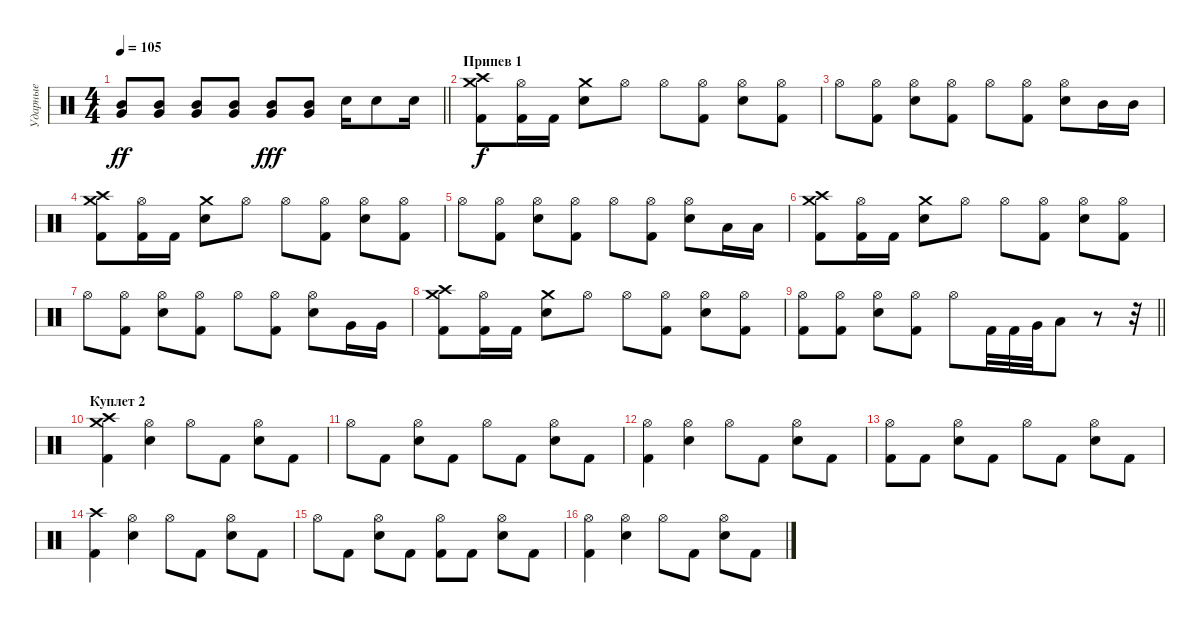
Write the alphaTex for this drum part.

\track ("Ударные" "Ударные") {instrument percussion}
\staff
\articulation defaults
\ts (4 4)
\tempo 105
\clef neutral
\barLineRight lightlight
\ks c
("Mid Tom (hit)" "Very Low Tom (hit)").8{dy ff} ("Mid Tom (hit)" "Very Low Tom (hit)").8 ("Mid Tom (hit)" "Very Low Tom (hit)").8 ("Mid Tom (hit)" "Very Low Tom (hit)").8 ("Mid Tom (hit)" "Very Low Tom (hit)").8{dy fff} ("Mid Tom (hit)" "Very Low Tom (hit)").8 "Electric Snare (hit)".16 "Electric Snare (hit)".8 "Electric Snare (hit)".16 |
\section ("" "Припев 1")
("Crash medium (hit)" "Crash high (hit)" "Kick (hit) 2").8{dy f} ("Hi-Hat (open)" "Kick (hit) 2").16 "Kick (hit) 2".16 ("Crash medium (hit)" "Electric Snare (hit)").8 "Hi-Hat (open)".8 "Hi-Hat (open)".8 ("Hi-Hat (open)" "Kick (hit) 2").8 ("Hi-Hat (open)" "Electric Snare (hit)").8 ("Hi-Hat (open)" "Kick (hit) 2").8 |
"Hi-Hat (open)".8 ("Hi-Hat (open)" "Kick (hit) 2").8 ("Hi-Hat (open)" "Electric Snare (hit)").8 ("Hi-Hat (open)" "Kick (hit) 2").8 "Hi-Hat (open)".8 ("Hi-Hat (open)" "Kick (hit) 2").8 ("Hi-Hat (open)" "Electric Snare (hit)").8 "Mid Tom (hit)".16 "Mid Tom (hit)".16 |
("Crash medium (hit)" "Crash high (hit)" "Kick (hit) 2").8 ("Hi-Hat (open)" "Kick (hit) 2").16 "Kick (hit) 2".16 ("Crash medium (hit)" "Electric Snare (hit)").8 "Hi-Hat (open)".8 "Hi-Hat (open)".8 ("Hi-Hat (open)" "Kick (hit) 2").8 ("Hi-Hat (open)" "Electric Snare (hit)").8 ("Hi-Hat (open)" "Kick (hit) 2").8 |
"Hi-Hat (open)".8 ("Hi-Hat (open)" "Kick (hit) 2").8 ("Hi-Hat (open)" "Electric Snare (hit)").8 ("Hi-Hat (open)" "Kick (hit) 2").8 "Hi-Hat (open)".8 ("Hi-Hat (open)" "Kick (hit) 2").8 ("Hi-Hat (open)" "Electric Snare (hit)").8 "Low Tom (hit)".16 "Low Tom (hit)".16 |
("Crash medium (hit)" "Crash high (hit)" "Kick (hit) 2").8 ("Hi-Hat (open)" "Kick (hit) 2").16 "Kick (hit) 2".16 ("Crash medium (hit)" "Electric Snare (hit)").8 "Hi-Hat (open)".8 "Hi-Hat (open)".8 ("Hi-Hat (open)" "Kick (hit) 2").8 ("Hi-Hat (open)" "Electric Snare (hit)").8 ("Hi-Hat (open)" "Kick (hit) 2").8 |
"Hi-Hat (open)".8 ("Hi-Hat (open)" "Kick (hit) 2").8 ("Hi-Hat (open)" "Electric Snare (hit)").8 ("Hi-Hat (open)" "Kick (hit) 2").8 "Hi-Hat (open)".8 ("Hi-Hat (open)" "Kick (hit) 2").8 ("Hi-Hat (open)" "Electric Snare (hit)").8 "Very Low Tom (hit)".16 "Very Low Tom (hit)".16 |
("Crash medium (hit)" "Crash high (hit)" "Kick (hit) 2").8 ("Hi-Hat (open)" "Kick (hit) 2").16 "Kick (hit) 2".16 ("Crash medium (hit)" "Electric Snare (hit)").8 "Hi-Hat (open)".8 "Hi-Hat (open)".8 ("Hi-Hat (open)" "Kick (hit) 2").8 ("Hi-Hat (open)" "Electric Snare (hit)").8 ("Hi-Hat (open)" "Kick (hit) 2").8 |
\barLineRight lightlight
("Hi-Hat (open)" "Kick (hit) 2").8 ("Hi-Hat (open)" "Kick (hit) 2").8 ("Hi-Hat (open)" "Electric Snare (hit)").8 ("Hi-Hat (open)" "Kick (hit) 2").8 "Hi-Hat (open)".8 "Kick (hit) 2".32 "Kick (hit) 2".32 "Very Low Tom (hit)".32 "Low Tom (hit)".8 r.8 r.32 |
\section ("" "Куплет 2")
("Crash high (hit)" "Crash medium (hit)" "Kick (hit) 2").4 ("Hi-Hat (open)" "Electric Snare (hit)").4 "Hi-Hat (open)".8 "Kick (hit) 2".8 ("Hi-Hat (open)" "Electric Snare (hit)").8 "Kick (hit) 2".8 |
"Hi-Hat (open)".8 "Kick (hit) 2".8 ("Hi-Hat (open)" "Electric Snare (hit)").8 "Kick (hit) 2".8 "Hi-Hat (open)".8 "Kick (hit) 2".8 ("Hi-Hat (open)" "Electric Snare (hit)").8 "Kick (hit) 2".8 |
("Hi-Hat (open)" "Kick (hit) 2").4 ("Hi-Hat (open)" "Electric Snare (hit)").4 "Hi-Hat (open)".8 "Kick (hit) 2".8 ("Hi-Hat (open)" "Electric Snare (hit)").8 "Kick (hit) 2".8 |
("Hi-Hat (open)" "Kick (hit) 2").8 "Kick (hit) 2".8 ("Hi-Hat (open)" "Electric Snare (hit)").8 "Kick (hit) 2".8 "Hi-Hat (open)".8 "Kick (hit) 2".8 ("Hi-Hat (open)" "Electric Snare (hit)").8 "Kick (hit) 2".8 |
("Crash high (hit)" "Kick (hit) 2").4 ("Hi-Hat (open)" "Electric Snare (hit)").4 "Hi-Hat (open)".8 "Kick (hit) 2".8 ("Hi-Hat (open)" "Electric Snare (hit)").8 "Kick (hit) 2".8 |
"Hi-Hat (open)".8 "Kick (hit) 2".8 ("Hi-Hat (open)" "Electric Snare (hit)").8 "Kick (hit) 2".8 ("Hi-Hat (open)" "Kick (hit) 2").8 "Kick (hit) 2".8 ("Hi-Hat (open)" "Electric Snare (hit)").8 "Kick (hit) 2".8 |
("Hi-Hat (open)" "Kick (hit) 2").4 ("Hi-Hat (open)" "Electric Snare (hit)").4 "Hi-Hat (open)".8 "Kick (hit) 2".8 ("Hi-Hat (open)" "Electric Snare (hit)").8 "Kick (hit) 2".8
